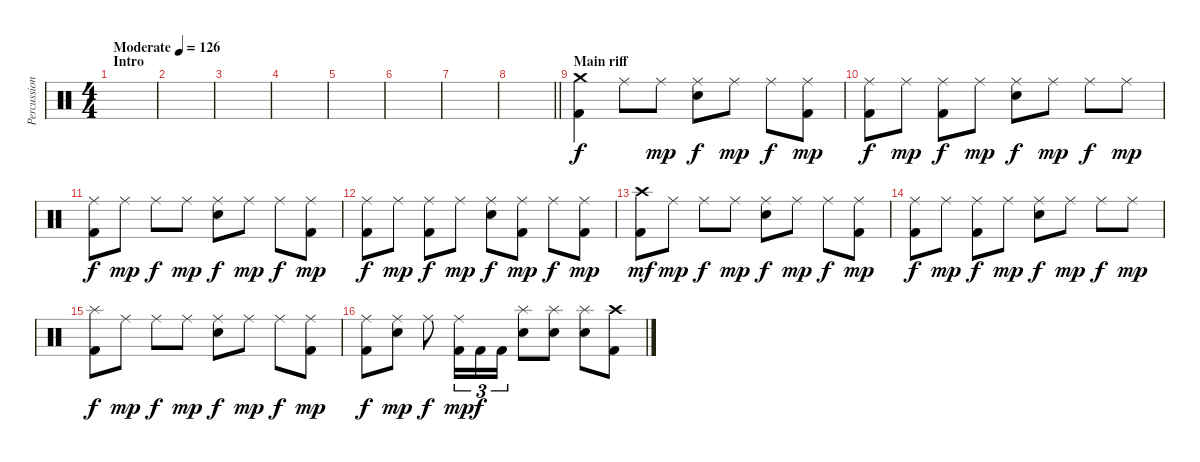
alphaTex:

\track ("Percussion" "Percussion") {instrument percussion}
\staff {score}
\articulation defaults
\ts (4 4)
\section ("" "Intro")
\tempo (126 "Moderate")
\clef neutral
\ks c
|
|
|
|
|
|
|
\barLineRight lightlight
|
\section ("" "Main riff")
("Crash medium (hit)" "Kick (hit) 2").4 "Ride (middle)".8 "Ride (middle)".8{dy mp} ("Ride (middle)" "Electric Snare (hit)").8{dy f} "Ride (middle)".8{dy mp} "Ride (middle)".8{dy f} ("Ride (middle)" "Kick (hit) 2").8{dy mp} |
("Ride (middle)" "Kick (hit) 2").8{dy f} "Ride (middle)".8{dy mp} ("Ride (middle)" "Kick (hit) 2").8{dy f} "Ride (middle)".8{dy mp} ("Ride (middle)" "Electric Snare (hit)").8{dy f} "Ride (middle)".8{dy mp} "Ride (middle)".8{dy f} "Ride (middle)".8{dy mp} |
("Ride (middle)" "Kick (hit) 2").8{dy f} "Ride (middle)".8{dy mp} "Ride (middle)".8{dy f} "Ride (middle)".8{dy mp} ("Ride (middle)" "Electric Snare (hit)").8{dy f} "Ride (middle)".8{dy mp} "Ride (middle)".8{dy f} ("Ride (middle)" "Kick (hit) 2").8{dy mp} |
("Ride (middle)" "Kick (hit) 2").8{dy f} "Ride (middle)".8{dy mp} ("Ride (middle)" "Kick (hit) 2").8{dy f} "Ride (middle)".8{dy mp} ("Ride (middle)" "Electric Snare (hit)").8{dy f} ("Ride (middle)" "Kick (hit) 2").8{dy mp} "Ride (middle)".8{dy f} ("Ride (middle)" "Kick (hit) 2").8{dy mp} |
("Crash high (hit)" "Kick (hit) 2").8{dy mf} "Ride (middle)".8{dy mp} "Ride (middle)".8{dy f} "Ride (middle)".8{dy mp} ("Ride (middle)" "Electric Snare (hit)").8{dy f} "Ride (middle)".8{dy mp} "Ride (middle)".8{dy f} ("Ride (middle)" "Kick (hit) 2").8{dy mp} |
("Ride (middle)" "Kick (hit) 2").8{dy f} "Ride (middle)".8{dy mp} ("Ride (middle)" "Kick (hit) 2").8{dy f} "Ride (middle)".8{dy mp} ("Ride (middle)" "Electric Snare (hit)").8{dy f} "Ride (middle)".8{dy mp} "Ride (middle)".8{dy f} "Ride (middle)".8{dy mp} |
("Splash (hit)" "Kick (hit) 2").8{dy f} "Ride (middle)".8{dy mp} "Ride (middle)".8{dy f} "Ride (middle)".8{dy mp} ("Ride (middle)" "Electric Snare (hit)").8{dy f} "Ride (middle)".8{dy mp} "Ride (middle)".8{dy f} ("Ride (middle)" "Kick (hit) 2").8{dy mp} |
("Ride (middle)" "Kick (hit) 2").8{dy f} ("Ride (middle)" "Electric Snare (hit)").8{dy mp} "Ride (middle)".8{dy f} ("Ride (middle)" "Kick (hit) 2").16{tu (3 2) dy mp} "Kick (hit) 2".16{tu (3 2) dy f} "Kick (hit) 2".16{tu (3 2)} ("Splash (hit)" "Electric Snare (hit)").8 ("Splash (hit)" "Electric Snare (hit)").8 ("Splash (hit)" "Electric Snare (hit)").8 ("Crash high (hit)" "Kick (hit) 2").8
